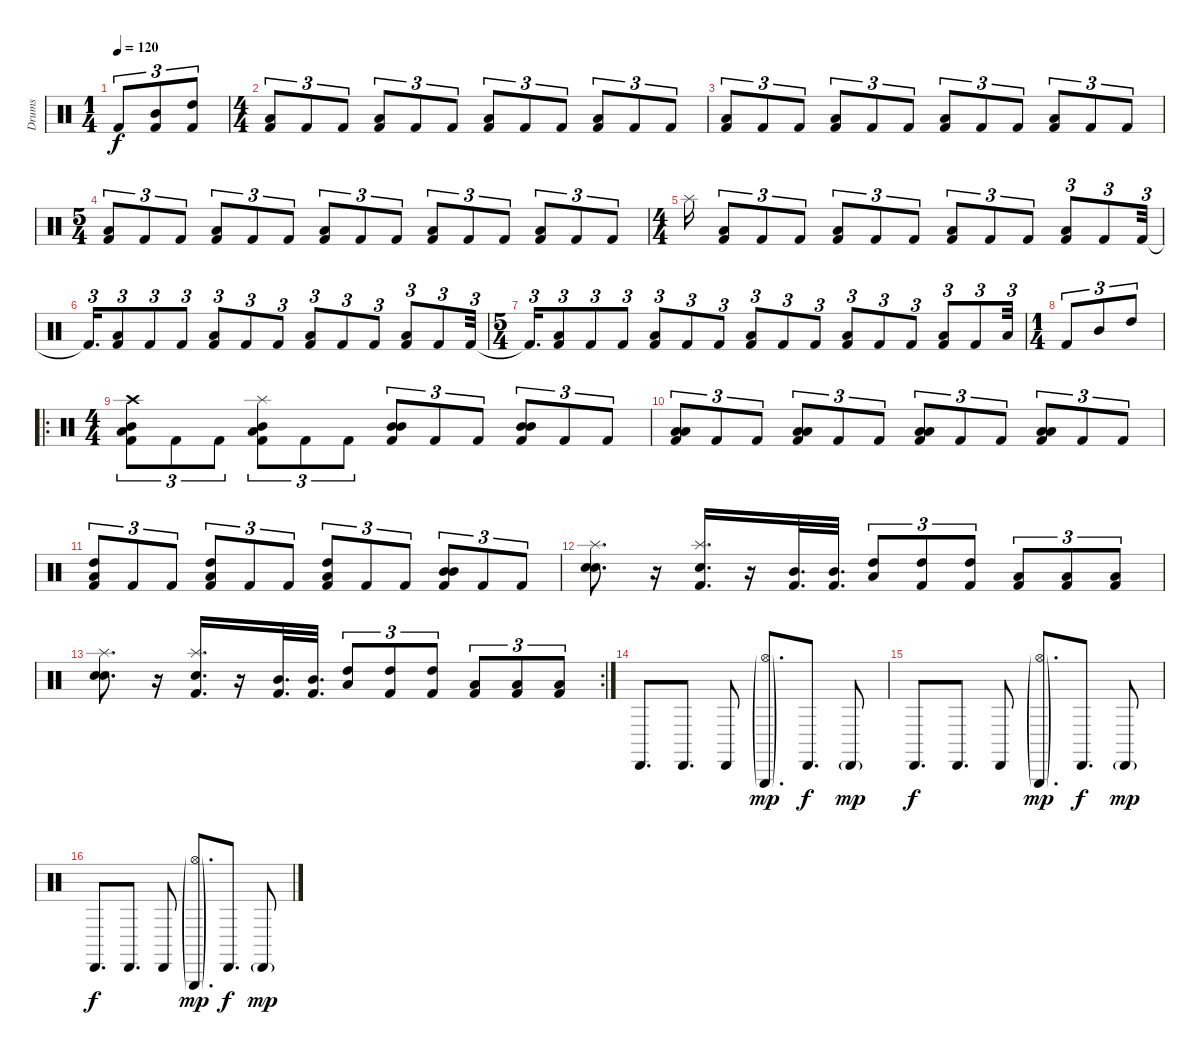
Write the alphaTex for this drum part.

\track ("Drums" "Drums") {instrument percussion}
\staff {score}
\articulation defaults
\ts (1 4)
\tempo 120
\clef neutral
\ks c "Kick (hit) 2".8{tu (3 2) dy f}
("Mid Tom (hit)" "Kick (hit) 2").8{tu (3 2)} ("High Tom (hit)" "Kick (hit) 2").8{tu (3 2)} |
\ts (4 4)
("Low Tom (hit)" "Kick (hit) 2").8{tu (3 2)} "Kick (hit) 2".8{tu (3 2)} "Kick (hit) 2".8{tu (3 2)} ("Low Tom (hit)" "Kick (hit) 2").8{tu (3 2)} "Kick (hit) 2".8{tu (3 2)} "Kick (hit) 2".8{tu (3 2)} ("Low Tom (hit)" "Kick (hit) 2").8{tu (3 2)} "Kick (hit) 2".8{tu (3 2)} "Kick (hit) 2".8{tu (3 2)} ("Low Tom (hit)" "Kick (hit) 2").8{tu (3 2)} "Kick (hit) 2".8{tu (3 2)} "Kick (hit) 2".8{tu (3 2)} |
("Low Tom (hit)" "Kick (hit) 2").8{tu (3 2)} "Kick (hit) 2".8{tu (3 2)} "Kick (hit) 2".8{tu (3 2)} ("Low Tom (hit)" "Kick (hit) 2").8{tu (3 2)} "Kick (hit) 2".8{tu (3 2)} "Kick (hit) 2".8{tu (3 2)} ("Low Tom (hit)" "Kick (hit) 2").8{tu (3 2)} "Kick (hit) 2".8{tu (3 2)} "Kick (hit) 2".8{tu (3 2)} ("Low Tom (hit)" "Kick (hit) 2").8{tu (3 2)} "Kick (hit) 2".8{tu (3 2)} "Kick (hit) 2".8{tu (3 2)} |
\ts (5 4)
("Low Tom (hit)" "Kick (hit) 2").8{tu (3 2)} "Kick (hit) 2".8{tu (3 2)} "Kick (hit) 2".8{tu (3 2)} ("Low Tom (hit)" "Kick (hit) 2").8{tu (3 2)} "Kick (hit) 2".8{tu (3 2)} "Kick (hit) 2".8{tu (3 2)} ("Low Tom (hit)" "Kick (hit) 2").8{tu (3 2)} "Kick (hit) 2".8{tu (3 2)} "Kick (hit) 2".8{tu (3 2)} ("Low Tom (hit)" "Kick (hit) 2").8{tu (3 2)} "Kick (hit) 2".8{tu (3 2)} "Kick (hit) 2".8{tu (3 2)} ("Low Tom (hit)" "Kick (hit) 2").8{tu (3 2)} "Kick (hit) 2".8{tu (3 2)} "Kick (hit) 2".8{tu (3 2)} |
\ts (4 4)
"Splash (hit)".16 ("Low Tom (hit)" "Kick (hit) 2").8{tu (3 2)} "Kick (hit) 2".8{tu (3 2)} "Kick (hit) 2".8{tu (3 2)} ("Low Tom (hit)" "Kick (hit) 2").8{tu (3 2)} "Kick (hit) 2".8{tu (3 2)} "Kick (hit) 2".8{tu (3 2)} ("Low Tom (hit)" "Kick (hit) 2").8{tu (3 2)} "Kick (hit) 2".8{tu (3 2)} "Kick (hit) 2".8{tu (3 2)} ("Low Tom (hit)" "Kick (hit) 2").8{tu (3 2)} "Kick (hit) 2".8{tu (3 2)} "Kick (hit) 2".32{tu (3 2)} |
"Kick (hit) 2"{t}.16{d tu (3 2)} ("Low Tom (hit)" "Kick (hit) 2").8{tu (3 2)} "Kick (hit) 2".8{tu (3 2)} "Kick (hit) 2".8{tu (3 2)} ("Low Tom (hit)" "Kick (hit) 2").8{tu (3 2)} "Kick (hit) 2".8{tu (3 2)} "Kick (hit) 2".8{tu (3 2)} ("Low Tom (hit)" "Kick (hit) 2").8{tu (3 2)} "Kick (hit) 2".8{tu (3 2)} "Kick (hit) 2".8{tu (3 2)} ("Low Tom (hit)" "Kick (hit) 2").8{tu (3 2)} "Kick (hit) 2".8{tu (3 2)} "Kick (hit) 2".32{tu (3 2)} |
\ts (5 4)
"Kick (hit) 2"{t}.16{d tu (3 2)} ("Low Tom (hit)" "Kick (hit) 2").8{tu (3 2)} "Kick (hit) 2".8{tu (3 2)} "Kick (hit) 2".8{tu (3 2)} ("Low Tom (hit)" "Kick (hit) 2").8{tu (3 2)} "Kick (hit) 2".8{tu (3 2)} "Kick (hit) 2".8{tu (3 2)} ("Low Tom (hit)" "Kick (hit) 2").8{tu (3 2)} "Kick (hit) 2".8{tu (3 2)} "Kick (hit) 2".8{tu (3 2)} ("Low Tom (hit)" "Kick (hit) 2").8{tu (3 2)} "Kick (hit) 2".8{tu (3 2)} "Kick (hit) 2".8{tu (3 2)} ("Low Tom (hit)" "Kick (hit) 2").8{tu (3 2)} "Kick (hit) 2".8{tu (3 2)} "Low Tom (hit)".32{tu (3 2)} |
\ts (1 4)
"Kick (hit) 2".8{tu (3 2)} "Mid Tom (hit)".8{tu (3 2)} "High Tom (hit)".8{tu (3 2)} |
\ro
\ts (4 4)
("Low Tom (hit)" "Mid Tom (hit)" "Crash high (hit)" "Kick (hit) 2").8{tu (3 2)} "Kick (hit) 2".8{tu (3 2)} "Kick (hit) 2".8{tu (3 2)} ("Low Tom (hit)" "Mid Tom (hit)" "Splash (hit)" "Kick (hit) 2").8{tu (3 2)} "Kick (hit) 2".8{tu (3 2)} "Kick (hit) 2".8{tu (3 2)} ("Mid Tom (hit)" "Mid Tom (hit)" "Kick (hit) 2").8{tu (3 2)} "Kick (hit) 2".8{tu (3 2)} "Kick (hit) 2".8{tu (3 2)} ("Mid Tom (hit)" "Mid Tom (hit)" "Kick (hit) 2").8{tu (3 2)} "Kick (hit) 2".8{tu (3 2)} "Kick (hit) 2".8{tu (3 2)} |
("Low Tom (hit)" "Low Tom (hit)" "Kick (hit) 2").8{tu (3 2)} "Kick (hit) 2".8{tu (3 2)} "Kick (hit) 2".8{tu (3 2)} ("Low Tom (hit)" "Low Tom (hit)" "Kick (hit) 2").8{tu (3 2)} "Kick (hit) 2".8{tu (3 2)} "Kick (hit) 2".8{tu (3 2)} ("Low Tom (hit)" "Low Tom (hit)" "Kick (hit) 2").8{tu (3 2)} "Kick (hit) 2".8{tu (3 2)} "Kick (hit) 2".8{tu (3 2)} ("Low Tom (hit)" "Low Tom (hit)" "Kick (hit) 2").8{tu (3 2)} "Kick (hit) 2".8{tu (3 2)} "Kick (hit) 2".8{tu (3 2)} |
("Low Tom (hit)" "High Tom (hit)" "Kick (hit) 2").8{tu (3 2)} "Kick (hit) 2".8{tu (3 2)} "Kick (hit) 2".8{tu (3 2)} ("Low Tom (hit)" "High Tom (hit)" "Kick (hit) 2").8{tu (3 2)} "Kick (hit) 2".8{tu (3 2)} "Kick (hit) 2".8{tu (3 2)} ("Low Tom (hit)" "High Tom (hit)" "Kick (hit) 2").8{tu (3 2)} "Kick (hit) 2".8{tu (3 2)} "Kick (hit) 2".8{tu (3 2)} ("Mid Tom (hit)" "Mid Tom (hit)" "Kick (hit) 2").8{tu (3 2)} "Kick (hit) 2".8{tu (3 2)} "Kick (hit) 2".8{tu (3 2)} |
("Splash (hit)" "Snare (hit) 2" "Electric Snare (hit)").8{d} r.16 ("Splash (hit)" "Electric Snare (hit)" "Kick (hit) 2").16{d} r.16 ("Mid Tom (hit)" "Kick (hit) 2").32{d} ("Mid Tom (hit)" "Kick (hit) 2").32{d} ("High Tom (hit)" "Low Tom (hit)").8{tu (3 2)} ("High Tom (hit)" "Kick (hit) 2").8{tu (3 2)} ("High Tom (hit)" "Kick (hit) 2").8{tu (3 2)} ("Low Tom (hit)" "Kick (hit) 2").8{tu (3 2)} ("Low Tom (hit)" "Kick (hit) 2").8{tu (3 2)} ("Low Tom (hit)" "Kick (hit) 2").8{tu (3 2)} |
\rc 2
("Splash (hit)" "Snare (hit) 2" "Electric Snare (hit)").8{d} r.16 ("Electric Snare (hit)" "Splash (hit)" "Kick (hit) 2").16{d} r.16 ("Mid Tom (hit)" "Kick (hit) 2").32{d} ("Mid Tom (hit)" "Kick (hit) 2").32{d} ("High Tom (hit)" "Low Tom (hit)").8{tu (3 2)} ("High Tom (hit)" "Kick (hit) 2").8{tu (3 2)} ("High Tom (hit)" "Kick (hit) 2").8{tu (3 2)} ("Low Tom (hit)" "Kick (hit) 2").8{tu (3 2)} ("Low Tom (hit)" "Kick (hit) 2").8{tu (3 2)} ("Low Tom (hit)" "Kick (hit) 2").8{tu (3 2)} |
"Cabasa (hit)".8{d} "Cabasa (hit)".8{d} "Cabasa (hit)".8 ("Triangle (hit)"{g} "Hi-Hat (open)"{g}).8{d dy mp} "Cabasa (hit)".8{d dy f} "Cabasa (hit)"{g}.8{dy mp} |
"Cabasa (hit)".8{d dy f} "Cabasa (hit)".8{d} "Cabasa (hit)".8 ("Triangle (hit)"{g} "Hi-Hat (open)"{g}).8{d dy mp} "Cabasa (hit)".8{d dy f} "Cabasa (hit)"{g}.8{dy mp} |
"Cabasa (hit)".8{d dy f} "Cabasa (hit)".8{d} "Cabasa (hit)".8 ("Triangle (hit)"{g} "Hi-Hat (open)"{g}).8{d dy mp} "Cabasa (hit)".8{d dy f} "Cabasa (hit)"{g}.8{dy mp}
